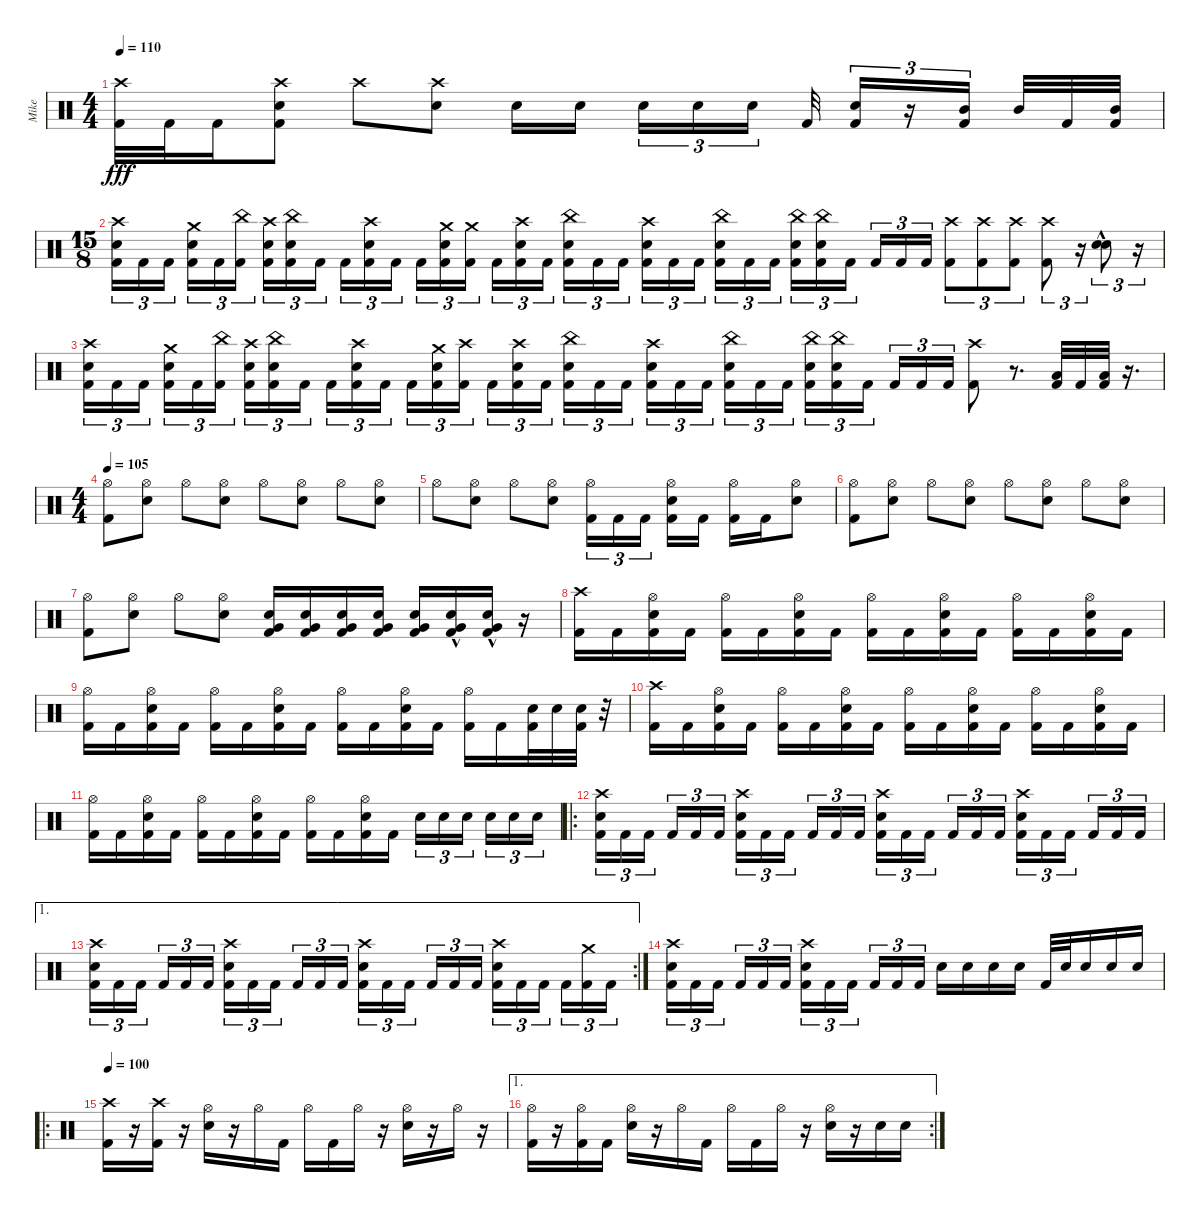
\track ("Mike" "Mike") {instrument percussion}
\staff {score}
\articulation defaults
\ts (4 4)
\tempo 110
\clef neutral
\ks c
("Crash high (hit)" "Kick (hit) 2").32{dy fff} "Kick (hit) 2".32 "Kick (hit) 2".16 ("Crash high (hit)" "Electric Snare (hit)" "Kick (hit) 2").8 "Crash high (hit)".8 ("Crash high (hit)" "Electric Snare (hit)").8 "Electric Snare (hit)".16 "Electric Snare (hit)".16{beam splitsecondary} "Electric Snare (hit)".16{tu (3 2)} "Electric Snare (hit)".16{tu (3 2)} "Electric Snare (hit)".16{tu (3 2)} "Kick (hit) 2".32 ("Electric Snare (hit)" "Kick (hit) 2").16{tu (3 2)} r.16{tu (3 2)} ("Mid Tom (hit)" "Kick (hit) 2").16{tu (3 2) beam splitsecondary} "Mid Tom (hit)".32 "Kick (hit) 2".32 ("Mid Tom (hit)" "Kick (hit) 2").32 |
\ts (15 8)
("Crash high (hit)" "Electric Snare (hit)" "Kick (hit) 2").16{tu (3 2)} "Kick (hit) 2".16{tu (3 2)} "Kick (hit) 2".16{tu (3 2) beam splitsecondary} ("Crash medium (hit)" "Electric Snare (hit)" "Kick (hit) 2").16{tu (3 2)} "Kick (hit) 2".16{tu (3 2)} ("China (hit)" "Kick (hit) 2").16{tu (3 2) beam splitsecondary} ("Crash high (hit)" "Electric Snare (hit)" "Kick (hit) 2").16{tu (3 2)} ("China (hit)" "Electric Snare (hit)" "Kick (hit) 2").16{tu (3 2)} "Kick (hit) 2".16{tu (3 2)} "Kick (hit) 2".16{tu (3 2)} ("Crash high (hit)" "Electric Snare (hit)" "Kick (hit) 2").16{tu (3 2)} "Kick (hit) 2".16{tu (3 2) beam splitsecondary} "Kick (hit) 2".16{tu (3 2)} ("Crash medium (hit)" "Electric Snare (hit)" "Kick (hit) 2").16{tu (3 2)} ("Crash medium (hit)" "Kick (hit) 2").16{tu (3 2) beam splitsecondary} "Kick (hit) 2".16{tu (3 2)} ("Crash high (hit)" "Electric Snare (hit)" "Kick (hit) 2").16{tu (3 2)} "Kick (hit) 2".16{tu (3 2)} ("China (hit)" "Electric Snare (hit)" "Kick (hit) 2").16{tu (3 2)} "Kick (hit) 2".16{tu (3 2)} "Kick (hit) 2".16{tu (3 2) beam splitsecondary} ("Crash high (hit)" "Electric Snare (hit)" "Kick (hit) 2").16{tu (3 2)} "Kick (hit) 2".16{tu (3 2)} "Kick (hit) 2".16{tu (3 2) beam splitsecondary} ("China (hit)" "Electric Snare (hit)" "Kick (hit) 2").16{tu (3 2)} "Kick (hit) 2".16{tu (3 2)} "Kick (hit) 2".16{tu (3 2)} ("China (hit)" "Electric Snare (hit)" "Kick (hit) 2").16{tu (3 2)} ("China (hit)" "Electric Snare (hit)" "Kick (hit) 2").16{tu (3 2)} "Kick (hit) 2".16{tu (3 2) beam splitsecondary} "Kick (hit) 2".16{tu (3 2)} "Kick (hit) 2".16{tu (3 2)} "Kick (hit) 2".16{tu (3 2)} ("Crash high (hit)" "Kick (hit) 2").8{tu (3 2)} ("Crash high (hit)" "Kick (hit) 2").8{tu (3 2)} ("Crash high (hit)" "Kick (hit) 2").8{tu (3 2)} ("Crash high (hit)" "Kick (hit) 2").8{tu (3 2)} r.16{tu (3 2)} ("Electric Snare (hit)" "Electric Snare (hit)"{hac}).8{tu (3 2)} r.16{tu (3 2)} |
("Crash high (hit)" "Electric Snare (hit)" "Kick (hit) 2").16{tu (3 2)} "Kick (hit) 2".16{tu (3 2)} "Kick (hit) 2".16{tu (3 2) beam splitsecondary} ("Crash medium (hit)" "Electric Snare (hit)" "Kick (hit) 2").16{tu (3 2)} "Kick (hit) 2".16{tu (3 2)} ("China (hit)" "Kick (hit) 2").16{tu (3 2) beam splitsecondary} ("Crash high (hit)" "Electric Snare (hit)" "Kick (hit) 2").16{tu (3 2)} ("China (hit)" "Electric Snare (hit)" "Kick (hit) 2").16{tu (3 2)} "Kick (hit) 2".16{tu (3 2)} "Kick (hit) 2".16{tu (3 2)} ("Crash high (hit)" "Electric Snare (hit)" "Kick (hit) 2").16{tu (3 2)} "Kick (hit) 2".16{tu (3 2) beam splitsecondary} "Kick (hit) 2".16{tu (3 2)} ("Crash medium (hit)" "Electric Snare (hit)" "Kick (hit) 2").16{tu (3 2)} ("Crash high (hit)" "Kick (hit) 2").16{tu (3 2) beam splitsecondary} "Kick (hit) 2".16{tu (3 2)} ("Crash high (hit)" "Electric Snare (hit)" "Kick (hit) 2").16{tu (3 2)} "Kick (hit) 2".16{tu (3 2)} ("China (hit)" "Electric Snare (hit)" "Kick (hit) 2").16{tu (3 2)} "Kick (hit) 2".16{tu (3 2)} "Kick (hit) 2".16{tu (3 2) beam splitsecondary} ("Crash high (hit)" "Electric Snare (hit)" "Kick (hit) 2").16{tu (3 2)} "Kick (hit) 2".16{tu (3 2)} "Kick (hit) 2".16{tu (3 2) beam splitsecondary} ("China (hit)" "Electric Snare (hit)" "Kick (hit) 2").16{tu (3 2)} "Kick (hit) 2".16{tu (3 2)} "Kick (hit) 2".16{tu (3 2)} ("China (hit)" "Electric Snare (hit)" "Kick (hit) 2").16{tu (3 2)} ("China (hit)" "Electric Snare (hit)" "Kick (hit) 2").16{tu (3 2)} "Kick (hit) 2".16{tu (3 2) beam splitsecondary} "Kick (hit) 2".16{tu (3 2)} "Kick (hit) 2".16{tu (3 2)} "Kick (hit) 2".16{tu (3 2)} ("Crash high (hit)" "Kick (hit) 2").8 r.8{d} ("Low Tom (hit)" "Kick (hit) 2").32 "Kick (hit) 2".32 ("Low Tom (hit)" "Kick (hit) 2").32 r.16{d} |
\ts (4 4)
\tempo 105
("Hi-Hat (open)" "Kick (hit) 2").8 ("Hi-Hat (open)" "Electric Snare (hit)").8 "Hi-Hat (open)".8 ("Hi-Hat (open)" "Electric Snare (hit)").8 "Hi-Hat (open)".8 ("Hi-Hat (open)" "Electric Snare (hit)").8 "Hi-Hat (open)".8 ("Hi-Hat (open)" "Electric Snare (hit)").8 |
"Hi-Hat (open)".8 ("Hi-Hat (open)" "Electric Snare (hit)").8 "Hi-Hat (open)".8 ("Hi-Hat (open)" "Electric Snare (hit)").8 ("Hi-Hat (open)" "Kick (hit) 2").16{tu (3 2)} "Kick (hit) 2".16{tu (3 2)} "Kick (hit) 2".16{tu (3 2) beam splitsecondary} ("Hi-Hat (open)" "Electric Snare (hit)" "Kick (hit) 2").16 "Kick (hit) 2".16 ("Hi-Hat (open)" "Kick (hit) 2").16 "Kick (hit) 2".16 ("Hi-Hat (open)" "Electric Snare (hit)").8 |
("Hi-Hat (open)" "Kick (hit) 2").8 ("Hi-Hat (open)" "Electric Snare (hit)").8 "Hi-Hat (open)".8 ("Hi-Hat (open)" "Electric Snare (hit)").8 "Hi-Hat (open)".8 ("Hi-Hat (open)" "Electric Snare (hit)").8 "Hi-Hat (open)".8 ("Hi-Hat (open)" "Electric Snare (hit)").8 |
("Hi-Hat (open)" "Kick (hit) 2").8 ("Hi-Hat (open)" "Electric Snare (hit)").8 "Hi-Hat (open)".8 ("Hi-Hat (open)" "Electric Snare (hit)").8 ("Very Low Tom (hit)" "Electric Snare (hit)" "Kick (hit) 2").16 ("Very Low Tom (hit)" "Electric Snare (hit)" "Kick (hit) 2").16 ("Very Low Tom (hit)" "Electric Snare (hit)" "Kick (hit) 2").16 ("Very Low Tom (hit)" "Electric Snare (hit)" "Kick (hit) 2").16 ("Very Low Tom (hit)" "Electric Snare (hit)" "Kick (hit) 2").16 ("Very Low Tom (hit)"{hac} "Electric Snare (hit)" "Kick (hit) 2").16 ("Very Low Tom (hit)"{hac} "Electric Snare (hit)" "Kick (hit) 2").16 r.16 |
("Crash high (hit)" "Kick (hit) 2").16 "Kick (hit) 2".16 ("Hi-Hat (open)" "Electric Snare (hit)" "Kick (hit) 2").16 "Kick (hit) 2".16 ("Hi-Hat (open)" "Kick (hit) 2").16 "Kick (hit) 2".16 ("Hi-Hat (open)" "Electric Snare (hit)" "Kick (hit) 2").16 "Kick (hit) 2".16 ("Hi-Hat (open)" "Kick (hit) 2").16 "Kick (hit) 2".16 ("Hi-Hat (open)" "Electric Snare (hit)" "Kick (hit) 2").16 "Kick (hit) 2".16 ("Hi-Hat (open)" "Kick (hit) 2").16 "Kick (hit) 2".16 ("Hi-Hat (open)" "Electric Snare (hit)" "Kick (hit) 2").16 "Kick (hit) 2".16 |
("Hi-Hat (open)" "Kick (hit) 2").16 "Kick (hit) 2".16 ("Hi-Hat (open)" "Electric Snare (hit)" "Kick (hit) 2").16 "Kick (hit) 2".16 ("Hi-Hat (open)" "Kick (hit) 2").16 "Kick (hit) 2".16 ("Hi-Hat (open)" "Electric Snare (hit)" "Kick (hit) 2").16 "Kick (hit) 2".16 ("Hi-Hat (open)" "Kick (hit) 2").16 "Kick (hit) 2".16 ("Hi-Hat (open)" "Electric Snare (hit)" "Kick (hit) 2").16 "Kick (hit) 2".16 ("Hi-Hat (open)" "Kick (hit) 2").16 "Kick (hit) 2".16 ("Electric Snare (hit)" "Kick (hit) 2").32 "Electric Snare (hit)".32 ("Electric Snare (hit)" "Kick (hit) 2").32 r.32 |
("Crash high (hit)" "Kick (hit) 2").16 "Kick (hit) 2".16 ("Hi-Hat (open)" "Electric Snare (hit)" "Kick (hit) 2").16 "Kick (hit) 2".16 ("Hi-Hat (open)" "Kick (hit) 2").16 "Kick (hit) 2".16 ("Hi-Hat (open)" "Electric Snare (hit)" "Kick (hit) 2").16 "Kick (hit) 2".16 ("Hi-Hat (open)" "Kick (hit) 2").16 "Kick (hit) 2".16 ("Hi-Hat (open)" "Electric Snare (hit)" "Kick (hit) 2").16 "Kick (hit) 2".16 ("Hi-Hat (open)" "Kick (hit) 2").16 "Kick (hit) 2".16 ("Hi-Hat (open)" "Electric Snare (hit)" "Kick (hit) 2").16 "Kick (hit) 2".16 |
("Hi-Hat (open)" "Kick (hit) 2").16 "Kick (hit) 2".16 ("Hi-Hat (open)" "Electric Snare (hit)" "Kick (hit) 2").16 "Kick (hit) 2".16 ("Hi-Hat (open)" "Kick (hit) 2").16 "Kick (hit) 2".16 ("Hi-Hat (open)" "Electric Snare (hit)" "Kick (hit) 2").16 "Kick (hit) 2".16 ("Hi-Hat (open)" "Kick (hit) 2").16 "Kick (hit) 2".16 ("Hi-Hat (open)" "Electric Snare (hit)" "Kick (hit) 2").16 "Kick (hit) 2".16 "Electric Snare (hit)".16{tu (3 2)} "Electric Snare (hit)".16{tu (3 2)} "Electric Snare (hit)".16{tu (3 2) beam splitsecondary} "Electric Snare (hit)".16{tu (3 2)} "Electric Snare (hit)".16{tu (3 2)} "Electric Snare (hit)".16{tu (3 2)} |
\ro
("Crash high (hit)" "Electric Snare (hit)" "Kick (hit) 2").16{tu (3 2)} "Kick (hit) 2".16{tu (3 2)} "Kick (hit) 2".16{tu (3 2) beam splitsecondary} "Kick (hit) 2".16{tu (3 2)} "Kick (hit) 2".16{tu (3 2)} "Kick (hit) 2".16{tu (3 2)} ("Crash high (hit)" "Electric Snare (hit)" "Kick (hit) 2").16{tu (3 2)} "Kick (hit) 2".16{tu (3 2)} "Kick (hit) 2".16{tu (3 2) beam splitsecondary} "Kick (hit) 2".16{tu (3 2)} "Kick (hit) 2".16{tu (3 2)} "Kick (hit) 2".16{tu (3 2)} ("Crash high (hit)" "Electric Snare (hit)" "Kick (hit) 2").16{tu (3 2)} "Kick (hit) 2".16{tu (3 2)} "Kick (hit) 2".16{tu (3 2) beam splitsecondary} "Kick (hit) 2".16{tu (3 2)} "Kick (hit) 2".16{tu (3 2)} "Kick (hit) 2".16{tu (3 2)} ("Crash high (hit)" "Electric Snare (hit)" "Kick (hit) 2").16{tu (3 2)} "Kick (hit) 2".16{tu (3 2)} "Kick (hit) 2".16{tu (3 2) beam splitsecondary} "Kick (hit) 2".16{tu (3 2)} "Kick (hit) 2".16{tu (3 2)} "Kick (hit) 2".16{tu (3 2)} |
\ae 1
\rc 2
("Crash high (hit)" "Electric Snare (hit)" "Kick (hit) 2").16{tu (3 2)} "Kick (hit) 2".16{tu (3 2)} "Kick (hit) 2".16{tu (3 2) beam splitsecondary} "Kick (hit) 2".16{tu (3 2)} "Kick (hit) 2".16{tu (3 2)} "Kick (hit) 2".16{tu (3 2)} ("Crash high (hit)" "Electric Snare (hit)" "Kick (hit) 2").16{tu (3 2)} "Kick (hit) 2".16{tu (3 2)} "Kick (hit) 2".16{tu (3 2) beam splitsecondary} "Kick (hit) 2".16{tu (3 2)} "Kick (hit) 2".16{tu (3 2)} "Kick (hit) 2".16{tu (3 2)} ("Crash high (hit)" "Electric Snare (hit)" "Kick (hit) 2").16{tu (3 2)} "Kick (hit) 2".16{tu (3 2)} "Kick (hit) 2".16{tu (3 2) beam splitsecondary} "Kick (hit) 2".16{tu (3 2)} "Kick (hit) 2".16{tu (3 2)} "Kick (hit) 2".16{tu (3 2)} ("Crash high (hit)" "Electric Snare (hit)" "Kick (hit) 2").16{tu (3 2)} "Kick (hit) 2".16{tu (3 2)} "Kick (hit) 2".16{tu (3 2) beam splitsecondary} "Kick (hit) 2".16{tu (3 2)} ("Crash medium (hit)" "Kick (hit) 2").16{tu (3 2)} "Kick (hit) 2".16{tu (3 2)} |
("Crash high (hit)" "Electric Snare (hit)" "Kick (hit) 2").16{tu (3 2)} "Kick (hit) 2".16{tu (3 2)} "Kick (hit) 2".16{tu (3 2) beam splitsecondary} "Kick (hit) 2".16{tu (3 2)} "Kick (hit) 2".16{tu (3 2)} "Kick (hit) 2".16{tu (3 2)} ("Crash high (hit)" "Electric Snare (hit)" "Kick (hit) 2").16{tu (3 2)} "Kick (hit) 2".16{tu (3 2)} "Kick (hit) 2".16{tu (3 2) beam splitsecondary} "Kick (hit) 2".16{tu (3 2)} "Kick (hit) 2".16{tu (3 2)} "Kick (hit) 2".16{tu (3 2)} "Electric Snare (hit)".16 "Electric Snare (hit)".16 "Electric Snare (hit)".16 "Electric Snare (hit)".16 "Kick (hit) 2".32 "Electric Snare (hit)".32 "Electric Snare (hit)".16 "Electric Snare (hit)".16 "Electric Snare (hit)".16 |
\ro
\tempo 100
("Crash high (hit)" "Kick (hit) 2").16 r.16 ("Crash high (hit)" "Kick (hit) 2").16 r.16 ("Hi-Hat (open)" "Electric Snare (hit)").16 r.16 "Hi-Hat (open)".16 "Kick (hit) 2".16 "Hi-Hat (open)".16 "Kick (hit) 2".16 "Hi-Hat (open)".16 r.16 ("Hi-Hat (open)" "Electric Snare (hit)").16 r.16 "Hi-Hat (open)".16 r.16 |
\ae 1
\rc 2
("Hi-Hat (open)" "Kick (hit) 2").16 r.16 ("Hi-Hat (open)" "Kick (hit) 2").16 "Kick (hit) 2".16 ("Hi-Hat (open)" "Electric Snare (hit)").16 r.16 "Hi-Hat (open)".16 "Kick (hit) 2".16 "Hi-Hat (open)".16 "Kick (hit) 2".16 "Hi-Hat (open)".16 r.16 ("Hi-Hat (open)" "Electric Snare (hit)").16 r.16 "Electric Snare (hit)".16 "Electric Snare (hit)".16
